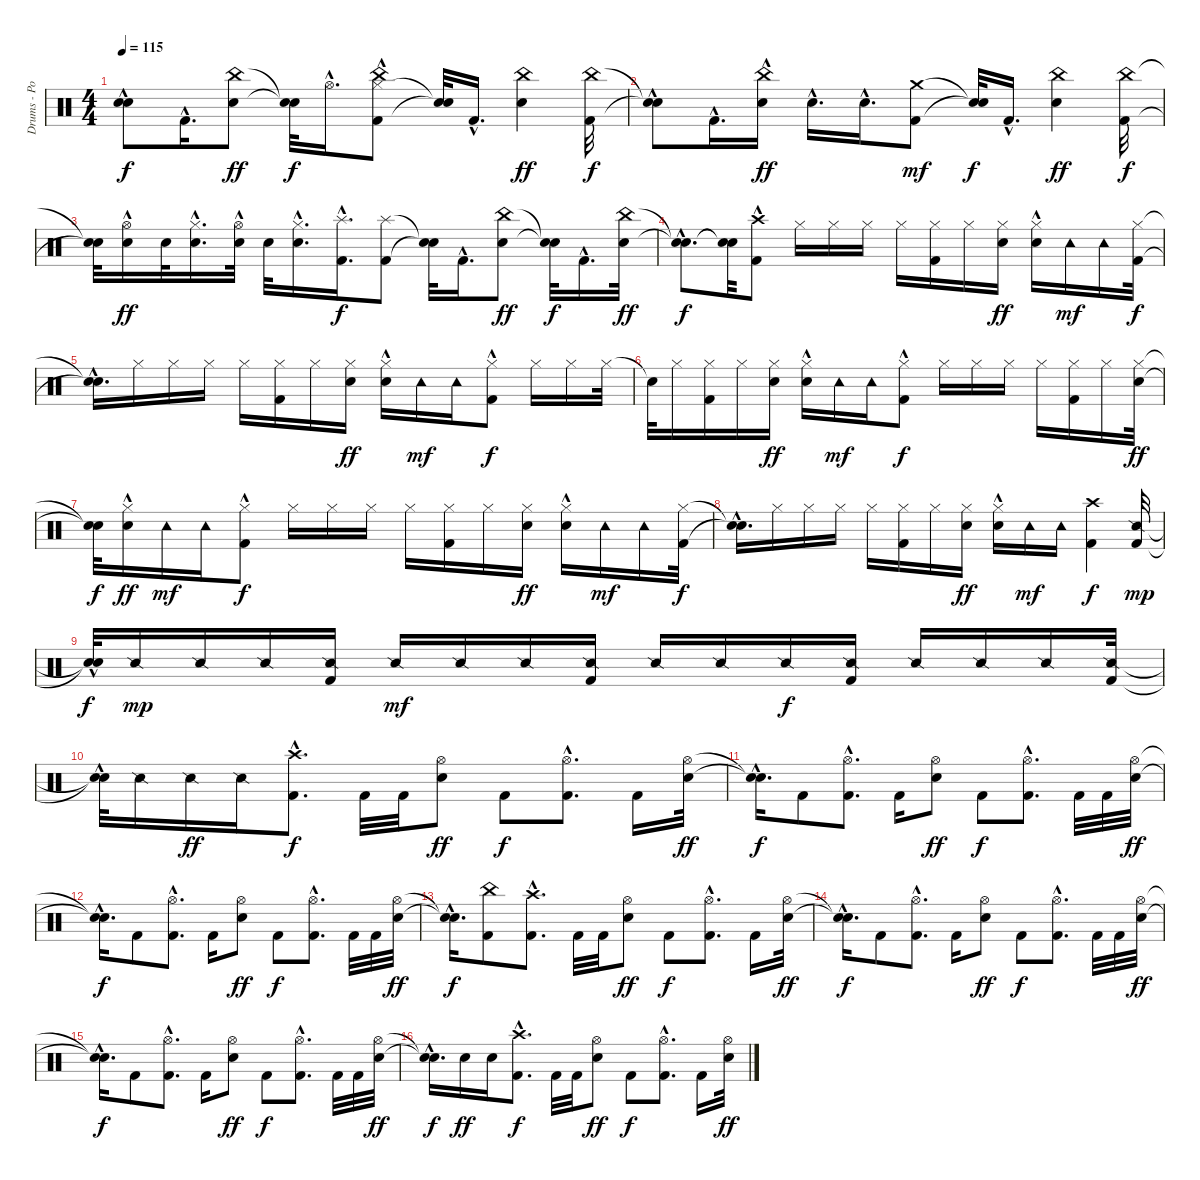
\track ("Drums - Portnoy" "Drums - Po") {instrument percussion}
\staff {score}
\articulation defaults
\ts (4 4)
\tempo 115
\clef neutral
\ks c
("Snare (hit)"{t} "Snare (hit)"{hac t}).8{dy f} "Kick (hit) 2"{hac}.16{d} ("Electric Snare (hit)" "China (hit)").8{dy ff} ("Snare (hit)"{t} "Snare (hit)"{t}).32{dy f} "Hi-Hat (open)"{hac}.16{d} ("Kick (hit) 2" "Hi-Hat (closed)"{hac} "China (hit)").8 ("Snare (hit)"{t} "Snare (hit)"{t}).32 "Kick (hit) 2"{hac}.16{d} ("Electric Snare (hit)" "China (hit)").4{dy ff} ("Kick (hit) 2" "China (hit)").32{dy f} |
("Snare (hit)"{t} "Snare (hit)"{hac t}).8 "Kick (hit) 2"{hac}.16{d} ("Electric Snare (hit)"{hac} "China (hit)").16{dy ff} "Electric Snare (hit)"{hac}.16{d} "Electric Snare (hit)"{hac}.16{d} ("Kick (hit) 2" "Crash medium (hit)").8{dy mf} ("Snare (hit)"{t} "Snare (hit)"{t}).32{dy f} "Kick (hit) 2"{hac}.16{d} ("Electric Snare (hit)" "China (hit)").4{dy ff} ("Kick (hit) 2" "China (hit)").32{dy f} |
("Snare (hit)"{t} "Snare (hit)"{t}).32 ("Hi-Hat (open)"{hac} "Electric Snare (hit)").16{dy ff} "Electric Snare (hit)".32 ("Hi-Hat (closed)"{hac} "Electric Snare (hit)"{hac}).16{d} ("Hi-Hat (open)"{hac} "Electric Snare (hit)").32 "Electric Snare (hit)".32 ("Hi-Hat (closed)"{hac} "Electric Snare (hit)"{hac}).16{d} ("Kick (hit) 2"{hac} "Splash (hit)"{hac}).16{d dy f} ("Kick (hit) 2" "Splash (hit)").8 ("Snare (hit)"{t} "Snare (hit)"{t}).32 "Kick (hit) 2"{hac}.16{d} ("Electric Snare (hit)" "China (hit)").8{dy ff} ("Snare (hit)"{t} "Snare (hit)"{t}).32{dy f} "Kick (hit) 2"{hac}.16{d} ("Electric Snare (hit)" "China (hit)").32{dy ff} |
("Snare (hit)"{hac t} "Snare (hit)"{hac t}).8{d dy f} ("Snare (hit)"{t} "Snare (hit)"{t}).32 ("Crash high (hit)" "Kick (hit) 2"{hac}).8 "Hi-Hat (closed)".16 "Hi-Hat (closed)".16 "Hi-Hat (closed)".16 "Hi-Hat (closed)".16 ("Kick (hit) 2" "Hi-Hat (closed)").16 "Hi-Hat (closed)".16 ("Hi-Hat (closed)" "Electric Snare (hit)").16{dy ff} ("Hi-Hat (closed)" "Electric Snare (hit)"{hac}).16 "Tambourine (hit)".16{dy mf} "Tambourine (hit)".16 ("Kick (hit) 2" "Hi-Hat (closed)").32{dy f} |
("Snare (hit)"{t} "Snare (hit)"{hac t}).16{d} "Hi-Hat (closed)".16 "Hi-Hat (closed)".16 "Hi-Hat (closed)".16 "Hi-Hat (closed)".16 ("Kick (hit) 2" "Hi-Hat (closed)").16 "Hi-Hat (closed)".16 ("Hi-Hat (closed)" "Electric Snare (hit)").16{dy ff} ("Hi-Hat (closed)" "Electric Snare (hit)"{hac}).16 "Tambourine (hit)".16{dy mf} "Tambourine (hit)".16 ("Kick (hit) 2"{hac} "Hi-Hat (closed)").8{dy f} "Hi-Hat (closed)".16 "Hi-Hat (closed)".16 "Hi-Hat (closed)".32 |
"Snare (hit)"{t}.32 "Hi-Hat (closed)".16 ("Kick (hit) 2" "Hi-Hat (closed)").16 "Hi-Hat (closed)".16 ("Hi-Hat (closed)" "Electric Snare (hit)").16{dy ff} ("Hi-Hat (closed)" "Electric Snare (hit)"{hac}).16 "Tambourine (hit)".16{dy mf} "Tambourine (hit)".16 ("Kick (hit) 2"{hac} "Hi-Hat (closed)").8{dy f} "Hi-Hat (closed)".16 "Hi-Hat (closed)".16 "Hi-Hat (closed)".16 "Hi-Hat (closed)".16 ("Kick (hit) 2" "Hi-Hat (closed)").16 "Hi-Hat (closed)".16 ("Hi-Hat (closed)" "Electric Snare (hit)").32{dy ff} |
("Snare (hit)"{t} "Snare (hit)"{t}).32{dy f} ("Hi-Hat (closed)" "Electric Snare (hit)"{hac}).16{dy ff} "Tambourine (hit)".16{dy mf} "Tambourine (hit)".16 ("Hi-Hat (closed)" "Kick (hit) 2"{hac}).8{dy f} "Hi-Hat (closed)".16 "Hi-Hat (closed)".16 "Hi-Hat (closed)".16 "Hi-Hat (closed)".16 ("Kick (hit) 2" "Hi-Hat (closed)").16 "Hi-Hat (closed)".16 ("Hi-Hat (closed)" "Electric Snare (hit)").16{dy ff} ("Hi-Hat (closed)" "Electric Snare (hit)"{hac}).16 "Tambourine (hit)".16{dy mf} "Tambourine (hit)".16 ("Hi-Hat (closed)" "Kick (hit) 2").32{dy f} |
("Snare (hit)"{hac t} "Snare (hit)"{t}).16{d} "Hi-Hat (closed)".16 "Hi-Hat (closed)".16 "Hi-Hat (closed)".16 "Hi-Hat (closed)".16 ("Kick (hit) 2" "Hi-Hat (closed)").16 "Hi-Hat (closed)".16 ("Hi-Hat (closed)" "Electric Snare (hit)").16{dy ff} ("Hi-Hat (closed)" "Electric Snare (hit)"{hac}).16 "Tambourine (hit)".16{dy mf} "Tambourine (hit)".16 ("Crash high (hit)" "Kick (hit) 2").4{dy f} ("Kick (hit) 2" "Snare (side stick) 2").32{dy mp} |
("Snare (hit)"{hac t} "Snare (hit)"{t}).32{dy f} "Snare (side stick) 2".16{dy mp} "Snare (side stick) 2".16 "Snare (side stick) 2".16 ("Kick (hit) 2" "Snare (side stick) 2").16 "Snare (side stick) 2".16{dy mf} "Snare (side stick) 2".16 "Snare (side stick) 2".16 ("Kick (hit) 2" "Snare (side stick) 2").16 "Snare (side stick) 2".16 "Snare (side stick) 2".16 "Snare (side stick) 2".16{dy f} ("Kick (hit) 2" "Snare (side stick) 2").16 "Snare (side stick) 2".16 "Snare (side stick) 2".16 "Snare (side stick) 2".16 ("Kick (hit) 2" "Snare (side stick) 2").32 |
("Snare (hit)"{hac t} "Snare (hit)"{t}).32 "Snare (side stick) 2".16 "Snare (side stick) 2".16{dy ff} "Snare (side stick) 2".16 ("Crash high (hit)" "Kick (hit) 2"{hac}).8{d dy f} "Kick (hit) 2".32 "Kick (hit) 2".32 ("Hi-Hat (open)" "Electric Snare (hit)").8{dy ff} "Kick (hit) 2".8{dy f} ("Kick (hit) 2"{hac} "Hi-Hat (open)").8{d} "Kick (hit) 2".16 ("Hi-Hat (open)" "Electric Snare (hit)").32{dy ff} |
("Snare (hit)"{hac t} "Snare (hit)"{hac t}).16{d dy f} "Kick (hit) 2".8 ("Kick (hit) 2"{hac} "Hi-Hat (open)").8{d} "Kick (hit) 2".16 ("Hi-Hat (open)" "Electric Snare (hit)").8{dy ff} "Kick (hit) 2".8{dy f} ("Kick (hit) 2"{hac} "Hi-Hat (open)").8{d} "Kick (hit) 2".32 "Kick (hit) 2".32 ("Hi-Hat (open)" "Electric Snare (hit)").32{dy ff} |
("Snare (hit)"{hac t} "Snare (hit)"{hac t}).16{d dy f} "Kick (hit) 2".8 ("Kick (hit) 2"{hac} "Hi-Hat (open)").8{d} "Kick (hit) 2".16 ("Hi-Hat (open)" "Electric Snare (hit)").8{dy ff} "Kick (hit) 2".8{dy f} ("Kick (hit) 2"{hac} "Hi-Hat (open)").8{d} "Kick (hit) 2".32 "Kick (hit) 2".32 ("Hi-Hat (open)" "Electric Snare (hit)").32{dy ff} |
("Snare (hit)"{hac t} "Snare (hit)"{hac t}).16{d dy f} ("Kick (hit) 2" "China (hit)").8 ("Kick (hit) 2"{hac} "Crash high (hit)").8{d} "Kick (hit) 2".32 "Kick (hit) 2".32 ("Hi-Hat (open)" "Electric Snare (hit)").8{dy ff} "Kick (hit) 2".8{dy f} ("Kick (hit) 2"{hac} "Hi-Hat (open)").8{d} "Kick (hit) 2".16 ("Hi-Hat (open)" "Electric Snare (hit)").32{dy ff} |
("Snare (hit)"{hac t} "Snare (hit)"{hac t}).16{d dy f} "Kick (hit) 2".8 ("Kick (hit) 2"{hac} "Hi-Hat (open)").8{d} "Kick (hit) 2".16 ("Hi-Hat (open)" "Electric Snare (hit)").8{dy ff} "Kick (hit) 2".8{dy f} ("Kick (hit) 2"{hac} "Hi-Hat (open)").8{d} "Kick (hit) 2".32 "Kick (hit) 2".32 ("Hi-Hat (open)" "Electric Snare (hit)").32{dy ff} |
("Snare (hit)"{hac t} "Snare (hit)"{hac t}).16{d dy f} "Kick (hit) 2".8 ("Kick (hit) 2"{hac} "Hi-Hat (open)").8{d} "Kick (hit) 2".16 ("Hi-Hat (open)" "Electric Snare (hit)").8{dy ff} "Kick (hit) 2".8{dy f} ("Kick (hit) 2"{hac} "Hi-Hat (open)").8{d} "Kick (hit) 2".32 "Kick (hit) 2".32 ("Hi-Hat (open)" "Electric Snare (hit)").32{dy ff} |
("Snare (hit)"{hac t} "Snare (hit)"{hac t}).16{d dy f} "Electric Snare (hit)".16{dy ff} "Electric Snare (hit)".16 ("Crash high (hit)" "Kick (hit) 2"{hac}).8{d dy f} "Kick (hit) 2".32 "Kick (hit) 2".32 ("Hi-Hat (open)" "Electric Snare (hit)").8{dy ff} "Kick (hit) 2".8{dy f} ("Kick (hit) 2"{hac} "Hi-Hat (open)").8{d} "Kick (hit) 2".16 ("Hi-Hat (open)" "Electric Snare (hit)").32{dy ff}
